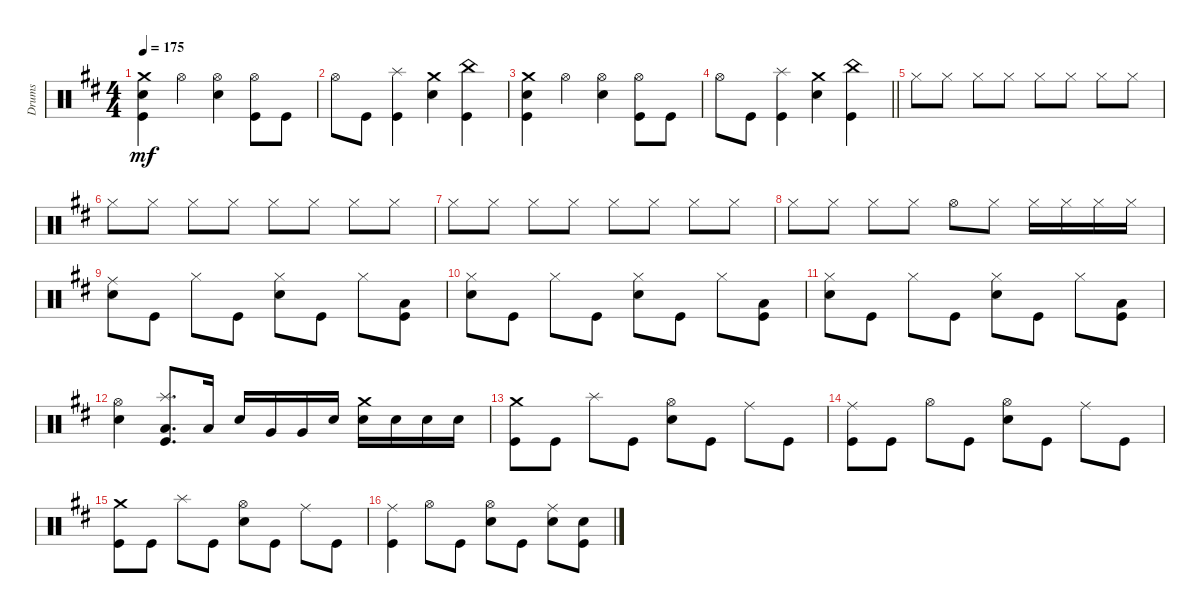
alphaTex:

\track ("Drums" "Drums") {instrument percussion}
\staff {score}
\articulation defaults
\ts (4 4)
\tempo 175
\clef neutral
\ks d
("Crash medium (hit)" "Snare (hit) 2" "Kick (hit)").4{dy mf} "Hi-Hat (open)".4 ("Hi-Hat (open)" "Snare (hit) 2").4 ("Hi-Hat (open)" "Kick (hit)").8 "Kick (hit)".8 |
"Hi-Hat (open)".8 "Kick (hit)".8 ("Kick (hit)" "Splash (hit)").4 ("Crash medium (hit)" "Snare (hit) 2").4 ("China (hit)" "Kick (hit)").4 |
("Crash medium (hit)" "Snare (hit) 2" "Kick (hit)").4 "Hi-Hat (open)".4 ("Hi-Hat (open)" "Snare (hit) 2").4 ("Hi-Hat (open)" "Kick (hit)").8 "Kick (hit)".8 |
\barLineRight lightlight "Hi-Hat (open)".8 "Kick (hit)".8
("Kick (hit)" "Splash (hit)").4 ("Crash medium (hit)" "Snare (hit) 2").4 ("China (hit)" "Kick (hit)").4 |
"Hi-Hat (closed)".8 "Hi-Hat (closed)".8 "Hi-Hat (closed)".8 "Hi-Hat (closed)".8 "Hi-Hat (closed)".8 "Hi-Hat (closed)".8 "Hi-Hat (closed)".8 "Hi-Hat (closed)".8 |
"Hi-Hat (closed)".8 "Hi-Hat (closed)".8 "Hi-Hat (closed)".8 "Hi-Hat (closed)".8 "Hi-Hat (closed)".8 "Hi-Hat (closed)".8 "Hi-Hat (closed)".8 "Hi-Hat (closed)".8 |
"Hi-Hat (closed)".8 "Hi-Hat (closed)".8 "Hi-Hat (closed)".8 "Hi-Hat (closed)".8 "Hi-Hat (closed)".8 "Hi-Hat (closed)".8 "Hi-Hat (closed)".8 "Hi-Hat (closed)".8 |
"Hi-Hat (closed)".8 "Hi-Hat (closed)".8 "Hi-Hat (closed)".8 "Hi-Hat (closed)".8 "Hi-Hat (open)".8 "Hi-Hat (closed)".8 "Hi-Hat (closed)".16 "Hi-Hat (closed)".16 "Hi-Hat (closed)".16 "Hi-Hat (closed)".16 |
("Ride (middle)" "Snare (hit) 2").8 "Kick (hit)".8 "Hi-Hat (closed)".8 "Kick (hit)".8 ("Hi-Hat (closed)" "Snare (hit) 2").8 "Kick (hit)".8 "Hi-Hat (closed)".8 ("Low Floor Tom (hit)" "Kick (hit)").8 |
("Snare (hit) 2" "Hi-Hat (closed)").8 "Kick (hit)".8 "Hi-Hat (closed)".8 "Kick (hit)".8 ("Hi-Hat (closed)" "Snare (hit) 2").8 "Kick (hit)".8 "Hi-Hat (closed)".8 ("Low Floor Tom (hit)" "Kick (hit)").8 |
("Snare (hit) 2" "Hi-Hat (closed)").8 "Kick (hit)".8 "Hi-Hat (closed)".8 "Kick (hit)".8 ("Hi-Hat (closed)" "Snare (hit) 2").8 "Kick (hit)".8 "Hi-Hat (closed)".8 ("Low Floor Tom (hit)" "Kick (hit)").8 |
("Hi-Hat (open)" "Snare (hit) 2").4 ("Splash (hit)" "Low Floor Tom (hit)" "Kick (hit)").8{d} "Low Floor Tom (hit)".16 "Snare (hit) 2".16 "Very Low Tom (hit)".16 "Very Low Tom (hit)".16 "Snare (hit) 2".16 ("Snare (hit) 2" "Crash medium (hit)").16 "Snare (hit) 2".16 "Snare (hit) 2".16 "Snare (hit) 2".16 |
("Crash medium (hit)" "Kick (hit)").8 "Kick (hit)".8 "Splash (hit)".8 "Kick (hit)".8 ("Hi-Hat (open)" "Snare (hit) 2").8 "Kick (hit)".8 "Ride (middle)".8 "Kick (hit)".8 |
("Kick (hit)" "Ride (middle)").8 "Kick (hit)".8 "Hi-Hat (open)".8 "Kick (hit)".8 ("Hi-Hat (open)" "Snare (hit) 2").8 "Kick (hit)".8 "Ride (middle)".8 "Kick (hit)".8 |
("Crash medium (hit)" "Kick (hit)").8 "Kick (hit)".8 "Splash (hit)".8 "Kick (hit)".8 ("Hi-Hat (open)" "Snare (hit) 2").8 "Kick (hit)".8 "Ride (middle)".8 "Kick (hit)".8 |
("Kick (hit)" "Ride (middle)").4 "Hi-Hat (open)".8 "Kick (hit)".8 ("Hi-Hat (open)" "Snare (hit) 2").8 "Kick (hit)".8 ("Ride (middle)" "Snare (hit) 2").8 ("Kick (hit)" "Snare (hit) 2").8
